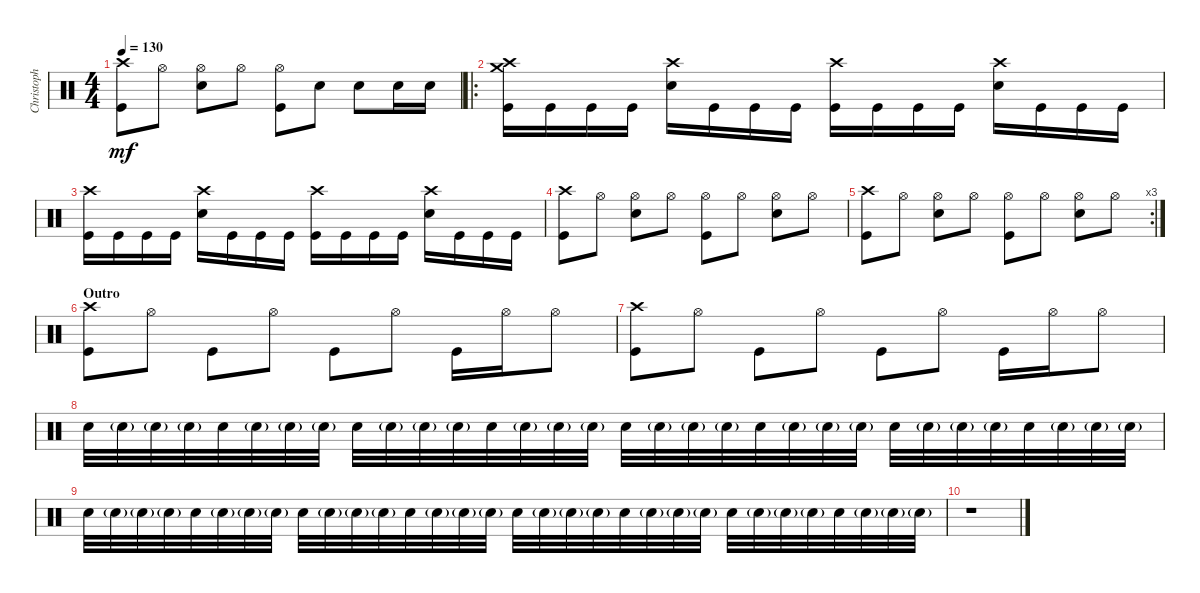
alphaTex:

\track ("Christoph Schneider" "Christoph ") {instrument percussion}
\staff {score}
\articulation defaults
\ts (4 4)
\tempo 130
\clef neutral
\ks c
("Crash high (hit)" "Kick (hit)").8{dy mf} "Hi-Hat (open)".8 ("Hi-Hat (open)" "Snare (hit) 2").8 "Hi-Hat (open)".8 ("Hi-Hat (open)" "Kick (hit)").8 "Snare (hit) 2".8 "Snare (hit) 2".8 "Snare (hit) 2".16 "Snare (hit) 2".16 |
\ro
("Crash high (hit)" "Crash medium (hit)" "Kick (hit)").16 "Kick (hit)".16 "Kick (hit)".16 "Kick (hit)".16 ("Crash high (hit)" "Snare (hit) 2").16 "Kick (hit)".16 "Kick (hit)".16 "Kick (hit)".16 ("Crash high (hit)" "Kick (hit)").16 "Kick (hit)".16 "Kick (hit)".16 "Kick (hit)".16 ("Crash high (hit)" "Snare (hit) 2").16 "Kick (hit)".16 "Kick (hit)".16 "Kick (hit)".16 |
("Crash high (hit)" "Kick (hit)").16 "Kick (hit)".16 "Kick (hit)".16 "Kick (hit)".16 ("Crash high (hit)" "Snare (hit) 2").16 "Kick (hit)".16 "Kick (hit)".16 "Kick (hit)".16 ("Crash high (hit)" "Kick (hit)").16 "Kick (hit)".16 "Kick (hit)".16 "Kick (hit)".16 ("Crash high (hit)" "Snare (hit) 2").16 "Kick (hit)".16 "Kick (hit)".16 "Kick (hit)".16 |
("Crash high (hit)" "Kick (hit)").8 "Hi-Hat (open)".8 ("Hi-Hat (open)" "Snare (hit) 2").8 "Hi-Hat (open)".8 ("Hi-Hat (open)" "Kick (hit)").8 "Hi-Hat (open)".8 ("Hi-Hat (open)" "Snare (hit) 2").8 "Hi-Hat (open)".8 |
\rc 3
("Crash high (hit)" "Kick (hit)").8 "Hi-Hat (open)".8 ("Hi-Hat (open)" "Snare (hit) 2").8 "Hi-Hat (open)".8 ("Hi-Hat (open)" "Kick (hit)").8 "Hi-Hat (open)".8 ("Hi-Hat (open)" "Snare (hit) 2").8 "Hi-Hat (open)".8 |
\section ("" "Outro")
("Crash high (hit)" "Kick (hit)").8 "Hi-Hat (open)".8 "Kick (hit)".8 "Hi-Hat (open)".8 "Kick (hit)".8 "Hi-Hat (open)".8 "Kick (hit)".16 "Hi-Hat (open)".16 "Hi-Hat (open)".8 |
("Crash high (hit)" "Kick (hit)").8 "Hi-Hat (open)".8 "Kick (hit)".8 "Hi-Hat (open)".8 "Kick (hit)".8 "Hi-Hat (open)".8 "Kick (hit)".16 "Hi-Hat (open)".16 "Hi-Hat (open)".8 |
"Snare (hit) 2".32 "Snare (hit) 2"{g}.32 "Snare (hit) 2"{g}.32 "Snare (hit) 2"{g}.32 "Snare (hit) 2".32 "Snare (hit) 2"{g}.32 "Snare (hit) 2"{g}.32 "Snare (hit) 2"{g}.32 "Snare (hit) 2".32 "Snare (hit) 2"{g}.32 "Snare (hit) 2"{g}.32 "Snare (hit) 2"{g}.32 "Snare (hit) 2".32 "Snare (hit) 2"{g}.32 "Snare (hit) 2"{g}.32 "Snare (hit) 2"{g}.32 "Snare (hit) 2".32 "Snare (hit) 2"{g}.32 "Snare (hit) 2"{g}.32 "Snare (hit) 2"{g}.32 "Snare (hit) 2".32 "Snare (hit) 2"{g}.32 "Snare (hit) 2"{g}.32 "Snare (hit) 2"{g}.32 "Snare (hit) 2".32 "Snare (hit) 2"{g}.32 "Snare (hit) 2"{g}.32 "Snare (hit) 2"{g}.32 "Snare (hit) 2".32 "Snare (hit) 2"{g}.32 "Snare (hit) 2"{g}.32 "Snare (hit) 2"{g}.32 |
"Snare (hit) 2".32 "Snare (hit) 2"{g}.32 "Snare (hit) 2"{g}.32 "Snare (hit) 2"{g}.32 "Snare (hit) 2".32 "Snare (hit) 2"{g}.32 "Snare (hit) 2"{g}.32 "Snare (hit) 2"{g}.32 "Snare (hit) 2".32 "Snare (hit) 2"{g}.32 "Snare (hit) 2"{g}.32 "Snare (hit) 2"{g}.32 "Snare (hit) 2".32 "Snare (hit) 2"{g}.32 "Snare (hit) 2"{g}.32 "Snare (hit) 2"{g}.32 "Snare (hit) 2".32 "Snare (hit) 2"{g}.32 "Snare (hit) 2"{g}.32 "Snare (hit) 2"{g}.32 "Snare (hit) 2".32 "Snare (hit) 2"{g}.32 "Snare (hit) 2"{g}.32 "Snare (hit) 2"{g}.32 "Snare (hit) 2".32 "Snare (hit) 2"{g}.32 "Snare (hit) 2"{g}.32 "Snare (hit) 2"{g}.32 "Snare (hit) 2".32 "Snare (hit) 2"{g}.32 "Snare (hit) 2"{g}.32 "Snare (hit) 2"{g}.32 |
r.1
